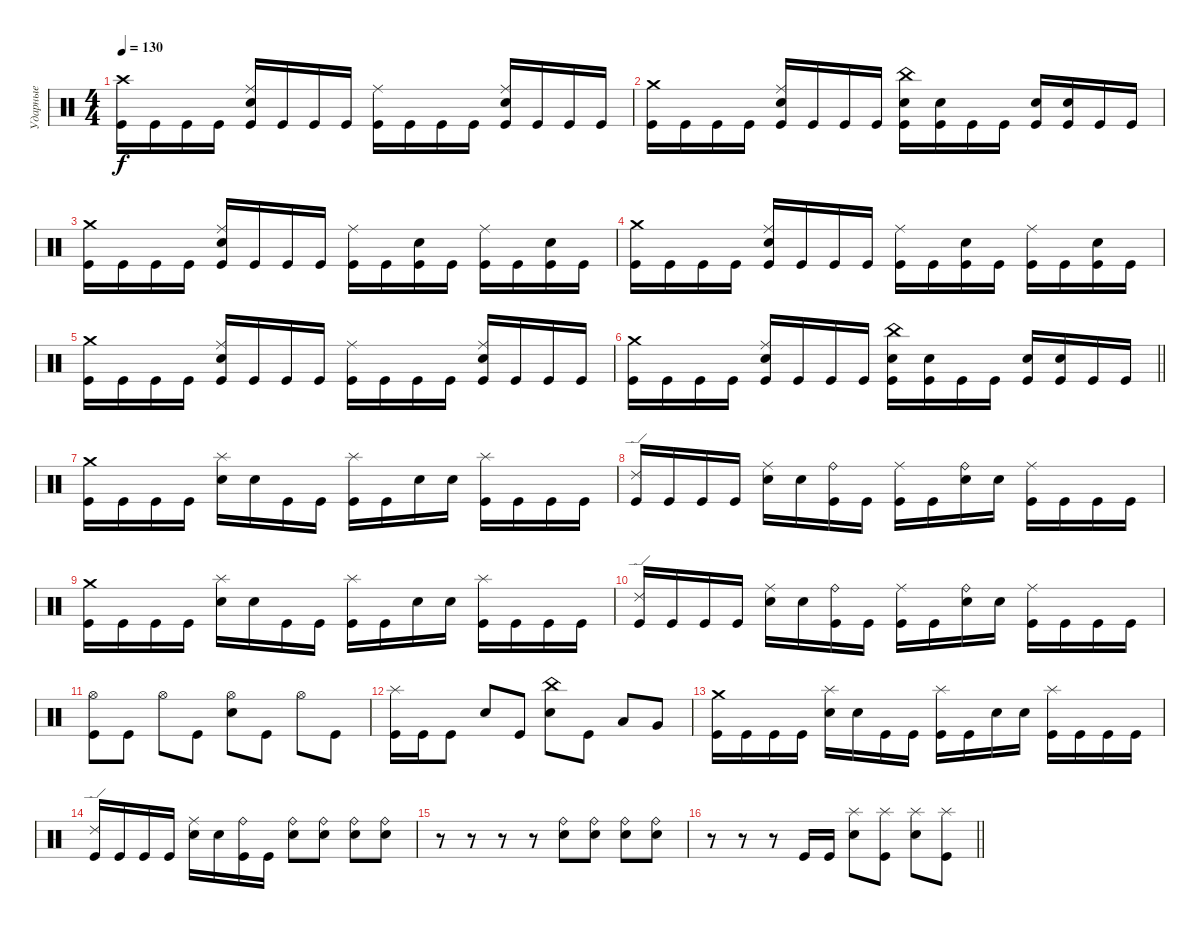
\track ("Ударные" "Ударные") {instrument percussion}
\staff {score}
\articulation defaults
\ts (4 4)
\tempo 130
\clef neutral
\ks c
("Crash high (hit)" "Kick (hit)").16{dy f} "Kick (hit)".16 "Kick (hit)".16 "Kick (hit)".16 ("Ride (middle)" "Electric Snare (hit)" "Kick (hit)").16 "Kick (hit)".16 "Kick (hit)".16 "Kick (hit)".16 ("Ride (middle)" "Kick (hit)").16 "Kick (hit)".16 "Kick (hit)".16 "Kick (hit)".16 ("Ride (middle)" "Electric Snare (hit)" "Kick (hit)").16 "Kick (hit)".16 "Kick (hit)".16 "Kick (hit)".16 |
("Crash medium (hit)" "Kick (hit)").16 "Kick (hit)".16 "Kick (hit)".16 "Kick (hit)".16 ("Ride (middle)" "Electric Snare (hit)" "Kick (hit)").16 "Kick (hit)".16 "Kick (hit)".16 "Kick (hit)".16 ("China (hit)" "Electric Snare (hit)" "Kick (hit)").16 ("Electric Snare (hit)" "Kick (hit)").16 "Kick (hit)".16 "Kick (hit)".16 ("Electric Snare (hit)" "Kick (hit)").16 ("Electric Snare (hit)" "Kick (hit)").16 "Kick (hit)".16 "Kick (hit)".16 |
("Crash medium (hit)" "Kick (hit)").16 "Kick (hit)".16 "Kick (hit)".16 "Kick (hit)".16 ("Ride (middle)" "Electric Snare (hit)" "Kick (hit)").16 "Kick (hit)".16 "Kick (hit)".16 "Kick (hit)".16 ("Ride (middle)" "Kick (hit)").16 "Kick (hit)".16 ("Electric Snare (hit)" "Kick (hit)").16 "Kick (hit)".16 ("Ride (middle)" "Kick (hit)").16 "Kick (hit)".16 ("Electric Snare (hit)" "Kick (hit)").16 "Kick (hit)".16 |
("Crash medium (hit)" "Kick (hit)").16 "Kick (hit)".16 "Kick (hit)".16 "Kick (hit)".16 ("Ride (middle)" "Electric Snare (hit)" "Kick (hit)").16 "Kick (hit)".16 "Kick (hit)".16 "Kick (hit)".16 ("Ride (middle)" "Kick (hit)").16 "Kick (hit)".16 ("Electric Snare (hit)" "Kick (hit)").16 "Kick (hit)".16 ("Ride (middle)" "Kick (hit)").16 "Kick (hit)".16 ("Electric Snare (hit)" "Kick (hit)").16 "Kick (hit)".16 |
("Crash medium (hit)" "Kick (hit)").16 "Kick (hit)".16 "Kick (hit)".16 "Kick (hit)".16 ("Ride (middle)" "Electric Snare (hit)" "Kick (hit)").16 "Kick (hit)".16 "Kick (hit)".16 "Kick (hit)".16 ("Ride (middle)" "Kick (hit)").16 "Kick (hit)".16 "Kick (hit)".16 "Kick (hit)".16 ("Ride (middle)" "Electric Snare (hit)" "Kick (hit)").16 "Kick (hit)".16 "Kick (hit)".16 "Kick (hit)".16 |
\barLineRight lightlight
("Crash medium (hit)" "Kick (hit)").16 "Kick (hit)".16 "Kick (hit)".16 "Kick (hit)".16 ("Ride (middle)" "Electric Snare (hit)" "Kick (hit)").16 "Kick (hit)".16 "Kick (hit)".16 "Kick (hit)".16 ("China (hit)" "Electric Snare (hit)" "Kick (hit)").16 ("Electric Snare (hit)" "Kick (hit)").16 "Kick (hit)".16 "Kick (hit)".16 ("Electric Snare (hit)" "Kick (hit)").16 ("Electric Snare (hit)" "Kick (hit)").16 "Kick (hit)".16 "Kick (hit)".16 |
\section ("" " ")
("Crash medium (hit)" "Kick (hit)").16 "Kick (hit)".16 "Kick (hit)".16 "Kick (hit)".16 ("Splash (hit)" "Electric Snare (hit)").16 "Electric Snare (hit)".16 "Kick (hit)".16 "Kick (hit)".16 ("Splash (hit)" "Kick (hit)").16 "Kick (hit)".16 "Electric Snare (hit)".16 "Electric Snare (hit)".16 ("Splash (hit)" "Kick (hit)").16 "Kick (hit)".16 "Kick (hit)".16 "Kick (hit)".16 |
("Ride (edge) 2" "Kick (hit)").16 "Kick (hit)".16 "Kick (hit)".16 "Kick (hit)".16 ("Ride (middle)" "Electric Snare (hit)").16 "Electric Snare (hit)".16 ("Ride (bell)" "Kick (hit)").16 "Kick (hit)".16 ("Ride (middle)" "Kick (hit)").16 "Kick (hit)".16 ("Ride (bell)" "Electric Snare (hit)").16 "Electric Snare (hit)".16 ("Ride (middle)" "Kick (hit)").16 "Kick (hit)".16 "Kick (hit)".16 "Kick (hit)".16 |
("Crash medium (hit)" "Kick (hit)").16 "Kick (hit)".16 "Kick (hit)".16 "Kick (hit)".16 ("Splash (hit)" "Electric Snare (hit)").16 "Electric Snare (hit)".16 "Kick (hit)".16 "Kick (hit)".16 ("Splash (hit)" "Kick (hit)").16 "Kick (hit)".16 "Electric Snare (hit)".16 "Electric Snare (hit)".16 ("Splash (hit)" "Kick (hit)").16 "Kick (hit)".16 "Kick (hit)".16 "Kick (hit)".16 |
("Ride (edge) 2" "Kick (hit)").16 "Kick (hit)".16 "Kick (hit)".16 "Kick (hit)".16 ("Ride (middle)" "Electric Snare (hit)").16 "Electric Snare (hit)".16 ("Ride (bell)" "Kick (hit)").16 "Kick (hit)".16 ("Ride (middle)" "Kick (hit)").16 "Kick (hit)".16 ("Ride (bell)" "Electric Snare (hit)").16 "Electric Snare (hit)".16 ("Ride (middle)" "Kick (hit)").16 "Kick (hit)".16 "Kick (hit)".16 "Kick (hit)".16 |
("Hi-Hat (open)" "Kick (hit)").8 "Kick (hit)".8 "Hi-Hat (open)".8 "Kick (hit)".8 ("Hi-Hat (open)" "Electric Snare (hit)").8 "Kick (hit)".8 "Hi-Hat (open)".8 "Kick (hit)".8 |
("Splash (hit)" "Kick (hit)").16 "Kick (hit)".16 "Kick (hit)".8 "Electric Snare (hit)".8 "Kick (hit)".8 ("China (hit)" "Electric Snare (hit)").8 "Kick (hit)".8 "Low Tom (hit)".8 "Very Low Tom (hit)".8 |
("Crash medium (hit)" "Kick (hit)").16 "Kick (hit)".16 "Kick (hit)".16 "Kick (hit)".16 ("Splash (hit)" "Electric Snare (hit)").16 "Electric Snare (hit)".16 "Kick (hit)".16 "Kick (hit)".16 ("Splash (hit)" "Kick (hit)").16 "Kick (hit)".16 "Electric Snare (hit)".16 "Electric Snare (hit)".16 ("Splash (hit)" "Kick (hit)").16 "Kick (hit)".16 "Kick (hit)".16 "Kick (hit)".16 |
("Ride (edge) 2" "Kick (hit)").16 "Kick (hit)".16 "Kick (hit)".16 "Kick (hit)".16 ("Ride (middle)" "Electric Snare (hit)").16 "Electric Snare (hit)".16 ("Ride (bell)" "Kick (hit)").16 "Kick (hit)".16 ("Ride (bell)" "Electric Snare (hit)").8 ("Ride (bell)" "Electric Snare (hit)").8 ("Ride (bell)" "Electric Snare (hit)").8 ("Ride (bell)" "Electric Snare (hit)").8 |
r.8 r.8 r.8 r.8 ("Ride (bell)" "Electric Snare (hit)").8 ("Ride (bell)" "Electric Snare (hit)").8 ("Ride (bell)" "Electric Snare (hit)").8 ("Ride (bell)" "Electric Snare (hit)").8 |
\barLineRight lightlight
r.8 r.8 r.8 "Kick (hit)".16 "Kick (hit)".16 ("Splash (hit)" "Electric Snare (hit)").8 ("Splash (hit)" "Kick (hit)").8 ("Splash (hit)" "Electric Snare (hit)").8 ("Splash (hit)" "Kick (hit)").8
